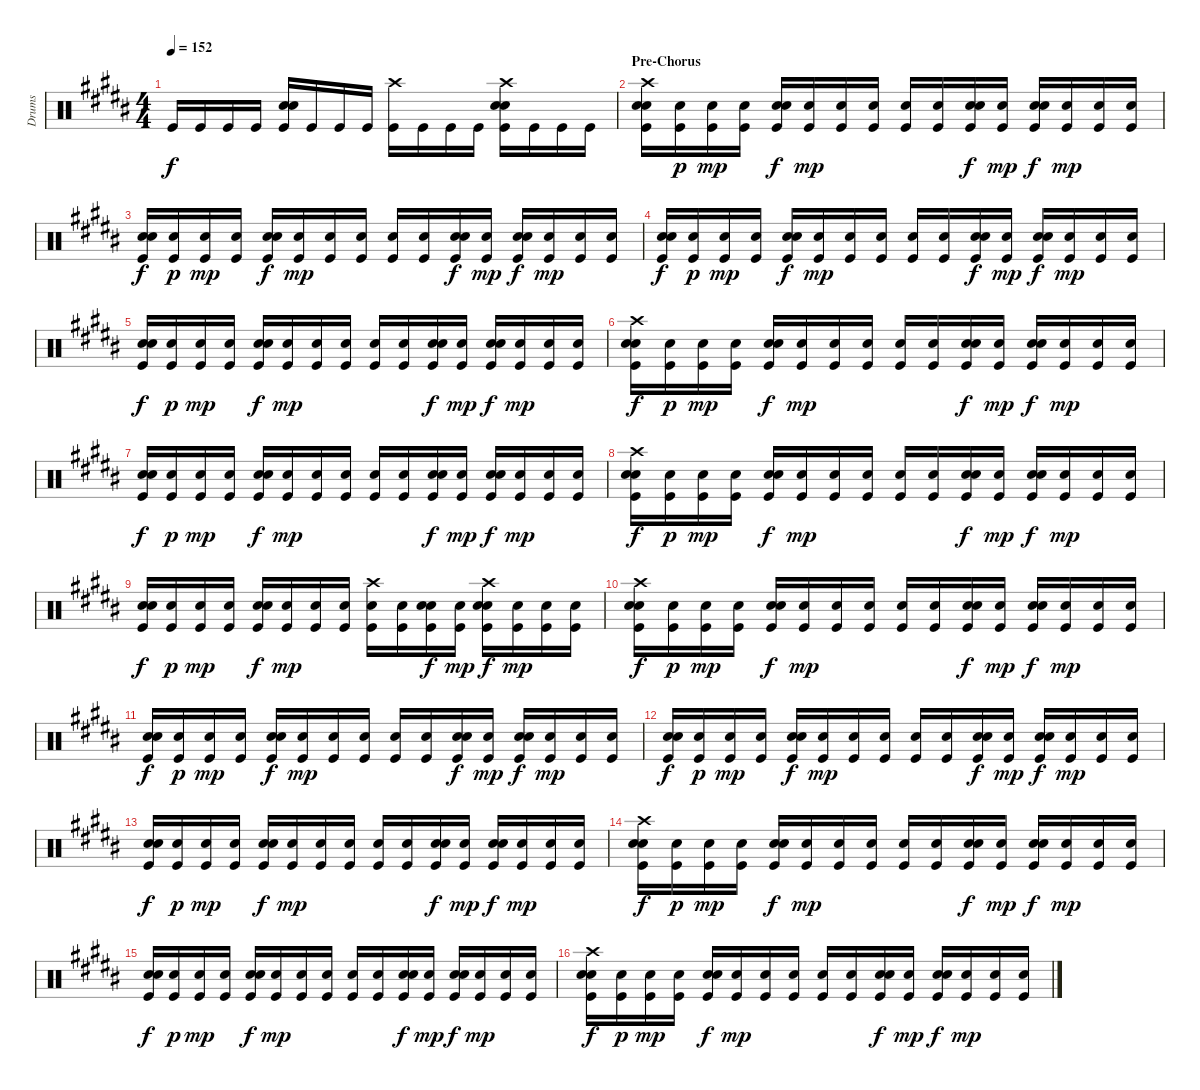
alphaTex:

\track ("Drums" "Drums") {instrument percussion}
\staff {score}
\articulation defaults
\ts (4 4)
\tempo 152
\clef neutral
\ks b "Kick (hit)".16{dy f} "Kick (hit)".16 "Kick (hit)".16 "Kick (hit)".16
("Snare (hit) 2" "Electric Snare (hit)" "Kick (hit)").16 "Kick (hit)".16 "Kick (hit)".16 "Kick (hit)".16 ("Crash high (hit)" "Kick (hit)").16 "Kick (hit)".16 "Kick (hit)".16 "Kick (hit)".16 ("Crash high (hit)" "Snare (hit) 2" "Electric Snare (hit)" "Kick (hit)").16 "Kick (hit)".16 "Kick (hit)".16 "Kick (hit)".16 |
\section ("" "Pre-Chorus")
("Crash high (hit)" "Electric Snare (hit)" "Snare (hit) 2" "Kick (hit)").16 ("Snare (hit) 2" "Kick (hit)").16{dy p} ("Snare (hit) 2" "Kick (hit)").16{dy mp} ("Snare (hit) 2" "Kick (hit)").16 ("Electric Snare (hit)" "Snare (hit) 2" "Kick (hit)").16{dy f} ("Snare (hit) 2" "Kick (hit)").16{dy mp} ("Snare (hit) 2" "Kick (hit)").16 ("Snare (hit) 2" "Kick (hit)").16 ("Snare (hit) 2" "Kick (hit)").16 ("Snare (hit) 2" "Kick (hit)").16 ("Electric Snare (hit)" "Snare (hit) 2" "Kick (hit)").16{dy f} ("Snare (hit) 2" "Kick (hit)").16{dy mp} ("Electric Snare (hit)" "Snare (hit) 2" "Kick (hit)").16{dy f} ("Snare (hit) 2" "Kick (hit)").16{dy mp} ("Snare (hit) 2" "Kick (hit)").16 ("Snare (hit) 2" "Kick (hit)").16 |
("Electric Snare (hit)" "Snare (hit) 2" "Kick (hit)").16{dy f} ("Snare (hit) 2" "Kick (hit)").16{dy p} ("Snare (hit) 2" "Kick (hit)").16{dy mp} ("Snare (hit) 2" "Kick (hit)").16 ("Electric Snare (hit)" "Snare (hit) 2" "Kick (hit)").16{dy f} ("Snare (hit) 2" "Kick (hit)").16{dy mp} ("Snare (hit) 2" "Kick (hit)").16 ("Snare (hit) 2" "Kick (hit)").16 ("Snare (hit) 2" "Kick (hit)").16 ("Snare (hit) 2" "Kick (hit)").16 ("Electric Snare (hit)" "Snare (hit) 2" "Kick (hit)").16{dy f} ("Snare (hit) 2" "Kick (hit)").16{dy mp} ("Electric Snare (hit)" "Snare (hit) 2" "Kick (hit)").16{dy f} ("Snare (hit) 2" "Kick (hit)").16{dy mp} ("Snare (hit) 2" "Kick (hit)").16 ("Snare (hit) 2" "Kick (hit)").16 |
("Electric Snare (hit)" "Snare (hit) 2" "Kick (hit)").16{dy f} ("Snare (hit) 2" "Kick (hit)").16{dy p} ("Snare (hit) 2" "Kick (hit)").16{dy mp} ("Snare (hit) 2" "Kick (hit)").16 ("Electric Snare (hit)" "Snare (hit) 2" "Kick (hit)").16{dy f} ("Snare (hit) 2" "Kick (hit)").16{dy mp} ("Snare (hit) 2" "Kick (hit)").16 ("Snare (hit) 2" "Kick (hit)").16 ("Snare (hit) 2" "Kick (hit)").16 ("Snare (hit) 2" "Kick (hit)").16 ("Electric Snare (hit)" "Snare (hit) 2" "Kick (hit)").16{dy f} ("Snare (hit) 2" "Kick (hit)").16{dy mp} ("Electric Snare (hit)" "Snare (hit) 2" "Kick (hit)").16{dy f} ("Snare (hit) 2" "Kick (hit)").16{dy mp} ("Snare (hit) 2" "Kick (hit)").16 ("Snare (hit) 2" "Kick (hit)").16 |
("Electric Snare (hit)" "Snare (hit) 2" "Kick (hit)").16{dy f} ("Snare (hit) 2" "Kick (hit)").16{dy p} ("Snare (hit) 2" "Kick (hit)").16{dy mp} ("Snare (hit) 2" "Kick (hit)").16 ("Electric Snare (hit)" "Snare (hit) 2" "Kick (hit)").16{dy f} ("Snare (hit) 2" "Kick (hit)").16{dy mp} ("Snare (hit) 2" "Kick (hit)").16 ("Snare (hit) 2" "Kick (hit)").16 ("Snare (hit) 2" "Kick (hit)").16 ("Snare (hit) 2" "Kick (hit)").16 ("Electric Snare (hit)" "Snare (hit) 2" "Kick (hit)").16{dy f} ("Snare (hit) 2" "Kick (hit)").16{dy mp} ("Electric Snare (hit)" "Snare (hit) 2" "Kick (hit)").16{dy f} ("Snare (hit) 2" "Kick (hit)").16{dy mp} ("Snare (hit) 2" "Kick (hit)").16 ("Snare (hit) 2" "Kick (hit)").16 |
("Crash high (hit)" "Electric Snare (hit)" "Snare (hit) 2" "Kick (hit)").16{dy f} ("Snare (hit) 2" "Kick (hit)").16{dy p} ("Snare (hit) 2" "Kick (hit)").16{dy mp} ("Snare (hit) 2" "Kick (hit)").16 ("Electric Snare (hit)" "Snare (hit) 2" "Kick (hit)").16{dy f} ("Snare (hit) 2" "Kick (hit)").16{dy mp} ("Snare (hit) 2" "Kick (hit)").16 ("Snare (hit) 2" "Kick (hit)").16 ("Snare (hit) 2" "Kick (hit)").16 ("Snare (hit) 2" "Kick (hit)").16 ("Electric Snare (hit)" "Snare (hit) 2" "Kick (hit)").16{dy f} ("Snare (hit) 2" "Kick (hit)").16{dy mp} ("Electric Snare (hit)" "Snare (hit) 2" "Kick (hit)").16{dy f} ("Snare (hit) 2" "Kick (hit)").16{dy mp} ("Snare (hit) 2" "Kick (hit)").16 ("Snare (hit) 2" "Kick (hit)").16 |
("Electric Snare (hit)" "Snare (hit) 2" "Kick (hit)").16{dy f} ("Snare (hit) 2" "Kick (hit)").16{dy p} ("Snare (hit) 2" "Kick (hit)").16{dy mp} ("Snare (hit) 2" "Kick (hit)").16 ("Electric Snare (hit)" "Snare (hit) 2" "Kick (hit)").16{dy f} ("Snare (hit) 2" "Kick (hit)").16{dy mp} ("Snare (hit) 2" "Kick (hit)").16 ("Snare (hit) 2" "Kick (hit)").16 ("Snare (hit) 2" "Kick (hit)").16 ("Snare (hit) 2" "Kick (hit)").16 ("Electric Snare (hit)" "Snare (hit) 2" "Kick (hit)").16{dy f} ("Snare (hit) 2" "Kick (hit)").16{dy mp} ("Electric Snare (hit)" "Snare (hit) 2" "Kick (hit)").16{dy f} ("Snare (hit) 2" "Kick (hit)").16{dy mp} ("Snare (hit) 2" "Kick (hit)").16 ("Snare (hit) 2" "Kick (hit)").16 |
("Crash high (hit)" "Electric Snare (hit)" "Snare (hit) 2" "Kick (hit)").16{dy f} ("Snare (hit) 2" "Kick (hit)").16{dy p} ("Snare (hit) 2" "Kick (hit)").16{dy mp} ("Snare (hit) 2" "Kick (hit)").16 ("Electric Snare (hit)" "Snare (hit) 2" "Kick (hit)").16{dy f} ("Snare (hit) 2" "Kick (hit)").16{dy mp} ("Snare (hit) 2" "Kick (hit)").16 ("Snare (hit) 2" "Kick (hit)").16 ("Snare (hit) 2" "Kick (hit)").16 ("Snare (hit) 2" "Kick (hit)").16 ("Electric Snare (hit)" "Snare (hit) 2" "Kick (hit)").16{dy f} ("Snare (hit) 2" "Kick (hit)").16{dy mp} ("Electric Snare (hit)" "Snare (hit) 2" "Kick (hit)").16{dy f} ("Snare (hit) 2" "Kick (hit)").16{dy mp} ("Snare (hit) 2" "Kick (hit)").16 ("Snare (hit) 2" "Kick (hit)").16 |
("Electric Snare (hit)" "Snare (hit) 2" "Kick (hit)").16{dy f} ("Snare (hit) 2" "Kick (hit)").16{dy p} ("Snare (hit) 2" "Kick (hit)").16{dy mp} ("Snare (hit) 2" "Kick (hit)").16 ("Electric Snare (hit)" "Snare (hit) 2" "Kick (hit)").16{dy f} ("Snare (hit) 2" "Kick (hit)").16{dy mp} ("Snare (hit) 2" "Kick (hit)").16 ("Snare (hit) 2" "Kick (hit)").16 ("Crash high (hit)" "Snare (hit) 2" "Kick (hit)").16 ("Snare (hit) 2" "Kick (hit)").16 ("Electric Snare (hit)" "Snare (hit) 2" "Kick (hit)").16{dy f} ("Snare (hit) 2" "Kick (hit)").16{dy mp} ("Crash high (hit)" "Electric Snare (hit)" "Snare (hit) 2" "Kick (hit)").16{dy f} ("Snare (hit) 2" "Kick (hit)").16{dy mp} ("Snare (hit) 2" "Kick (hit)").16 ("Snare (hit) 2" "Kick (hit)").16 |
("Crash high (hit)" "Electric Snare (hit)" "Snare (hit) 2" "Kick (hit)").16{dy f} ("Snare (hit) 2" "Kick (hit)").16{dy p} ("Snare (hit) 2" "Kick (hit)").16{dy mp} ("Snare (hit) 2" "Kick (hit)").16 ("Electric Snare (hit)" "Snare (hit) 2" "Kick (hit)").16{dy f} ("Snare (hit) 2" "Kick (hit)").16{dy mp} ("Snare (hit) 2" "Kick (hit)").16 ("Snare (hit) 2" "Kick (hit)").16 ("Snare (hit) 2" "Kick (hit)").16 ("Snare (hit) 2" "Kick (hit)").16 ("Electric Snare (hit)" "Snare (hit) 2" "Kick (hit)").16{dy f} ("Snare (hit) 2" "Kick (hit)").16{dy mp} ("Electric Snare (hit)" "Snare (hit) 2" "Kick (hit)").16{dy f} ("Snare (hit) 2" "Kick (hit)").16{dy mp} ("Snare (hit) 2" "Kick (hit)").16 ("Snare (hit) 2" "Kick (hit)").16 |
("Electric Snare (hit)" "Snare (hit) 2" "Kick (hit)").16{dy f} ("Snare (hit) 2" "Kick (hit)").16{dy p} ("Snare (hit) 2" "Kick (hit)").16{dy mp} ("Snare (hit) 2" "Kick (hit)").16 ("Electric Snare (hit)" "Snare (hit) 2" "Kick (hit)").16{dy f} ("Snare (hit) 2" "Kick (hit)").16{dy mp} ("Snare (hit) 2" "Kick (hit)").16 ("Snare (hit) 2" "Kick (hit)").16 ("Snare (hit) 2" "Kick (hit)").16 ("Snare (hit) 2" "Kick (hit)").16 ("Electric Snare (hit)" "Snare (hit) 2" "Kick (hit)").16{dy f} ("Snare (hit) 2" "Kick (hit)").16{dy mp} ("Electric Snare (hit)" "Snare (hit) 2" "Kick (hit)").16{dy f} ("Snare (hit) 2" "Kick (hit)").16{dy mp} ("Snare (hit) 2" "Kick (hit)").16 ("Snare (hit) 2" "Kick (hit)").16 |
("Electric Snare (hit)" "Snare (hit) 2" "Kick (hit)").16{dy f} ("Snare (hit) 2" "Kick (hit)").16{dy p} ("Snare (hit) 2" "Kick (hit)").16{dy mp} ("Snare (hit) 2" "Kick (hit)").16 ("Electric Snare (hit)" "Snare (hit) 2" "Kick (hit)").16{dy f} ("Snare (hit) 2" "Kick (hit)").16{dy mp} ("Snare (hit) 2" "Kick (hit)").16 ("Snare (hit) 2" "Kick (hit)").16 ("Snare (hit) 2" "Kick (hit)").16 ("Snare (hit) 2" "Kick (hit)").16 ("Electric Snare (hit)" "Snare (hit) 2" "Kick (hit)").16{dy f} ("Snare (hit) 2" "Kick (hit)").16{dy mp} ("Electric Snare (hit)" "Snare (hit) 2" "Kick (hit)").16{dy f} ("Snare (hit) 2" "Kick (hit)").16{dy mp} ("Snare (hit) 2" "Kick (hit)").16 ("Snare (hit) 2" "Kick (hit)").16 |
("Electric Snare (hit)" "Snare (hit) 2" "Kick (hit)").16{dy f} ("Snare (hit) 2" "Kick (hit)").16{dy p} ("Snare (hit) 2" "Kick (hit)").16{dy mp} ("Snare (hit) 2" "Kick (hit)").16 ("Electric Snare (hit)" "Snare (hit) 2" "Kick (hit)").16{dy f} ("Snare (hit) 2" "Kick (hit)").16{dy mp} ("Snare (hit) 2" "Kick (hit)").16 ("Snare (hit) 2" "Kick (hit)").16 ("Snare (hit) 2" "Kick (hit)").16 ("Snare (hit) 2" "Kick (hit)").16 ("Electric Snare (hit)" "Snare (hit) 2" "Kick (hit)").16{dy f} ("Snare (hit) 2" "Kick (hit)").16{dy mp} ("Electric Snare (hit)" "Snare (hit) 2" "Kick (hit)").16{dy f} ("Snare (hit) 2" "Kick (hit)").16{dy mp} ("Snare (hit) 2" "Kick (hit)").16 ("Snare (hit) 2" "Kick (hit)").16 |
("Crash high (hit)" "Electric Snare (hit)" "Snare (hit) 2" "Kick (hit)").16{dy f} ("Snare (hit) 2" "Kick (hit)").16{dy p} ("Snare (hit) 2" "Kick (hit)").16{dy mp} ("Snare (hit) 2" "Kick (hit)").16 ("Electric Snare (hit)" "Snare (hit) 2" "Kick (hit)").16{dy f} ("Snare (hit) 2" "Kick (hit)").16{dy mp} ("Snare (hit) 2" "Kick (hit)").16 ("Snare (hit) 2" "Kick (hit)").16 ("Snare (hit) 2" "Kick (hit)").16 ("Snare (hit) 2" "Kick (hit)").16 ("Electric Snare (hit)" "Snare (hit) 2" "Kick (hit)").16{dy f} ("Snare (hit) 2" "Kick (hit)").16{dy mp} ("Electric Snare (hit)" "Snare (hit) 2" "Kick (hit)").16{dy f} ("Snare (hit) 2" "Kick (hit)").16{dy mp} ("Snare (hit) 2" "Kick (hit)").16 ("Snare (hit) 2" "Kick (hit)").16 |
("Electric Snare (hit)" "Snare (hit) 2" "Kick (hit)").16{dy f} ("Snare (hit) 2" "Kick (hit)").16{dy p} ("Snare (hit) 2" "Kick (hit)").16{dy mp} ("Snare (hit) 2" "Kick (hit)").16 ("Electric Snare (hit)" "Snare (hit) 2" "Kick (hit)").16{dy f} ("Snare (hit) 2" "Kick (hit)").16{dy mp} ("Snare (hit) 2" "Kick (hit)").16 ("Snare (hit) 2" "Kick (hit)").16 ("Snare (hit) 2" "Kick (hit)").16 ("Snare (hit) 2" "Kick (hit)").16 ("Electric Snare (hit)" "Snare (hit) 2" "Kick (hit)").16{dy f} ("Snare (hit) 2" "Kick (hit)").16{dy mp} ("Electric Snare (hit)" "Snare (hit) 2" "Kick (hit)").16{dy f} ("Snare (hit) 2" "Kick (hit)").16{dy mp} ("Snare (hit) 2" "Kick (hit)").16 ("Snare (hit) 2" "Kick (hit)").16 |
("Crash high (hit)" "Electric Snare (hit)" "Snare (hit) 2" "Kick (hit)").16{dy f} ("Snare (hit) 2" "Kick (hit)").16{dy p} ("Snare (hit) 2" "Kick (hit)").16{dy mp} ("Snare (hit) 2" "Kick (hit)").16 ("Electric Snare (hit)" "Snare (hit) 2" "Kick (hit)").16{dy f} ("Snare (hit) 2" "Kick (hit)").16{dy mp} ("Snare (hit) 2" "Kick (hit)").16 ("Snare (hit) 2" "Kick (hit)").16 ("Snare (hit) 2" "Kick (hit)").16 ("Snare (hit) 2" "Kick (hit)").16 ("Electric Snare (hit)" "Snare (hit) 2" "Kick (hit)").16{dy f} ("Snare (hit) 2" "Kick (hit)").16{dy mp} ("Electric Snare (hit)" "Snare (hit) 2" "Kick (hit)").16{dy f} ("Snare (hit) 2" "Kick (hit)").16{dy mp} ("Snare (hit) 2" "Kick (hit)").16 ("Snare (hit) 2" "Kick (hit)").16
